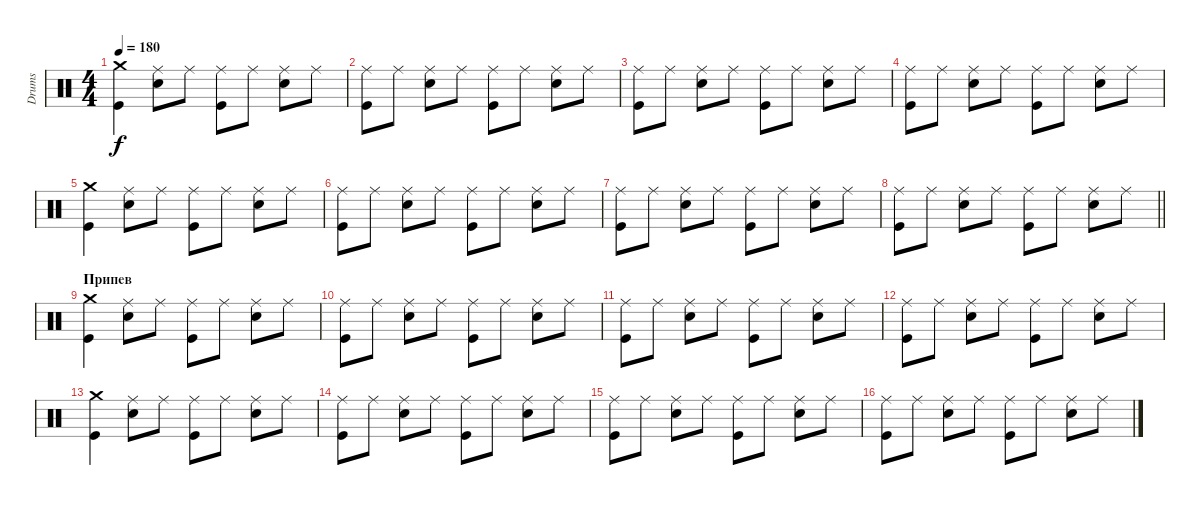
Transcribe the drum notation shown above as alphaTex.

\track ("Drums" "Drums") {instrument percussion}
\staff {score}
\articulation defaults
\ts (4 4)
\tempo 180
\clef neutral
\ks c
("Kick (hit)" "Crash medium (hit)").4{dy f} ("Snare (hit) 2" "Ride (middle)").8 "Ride (middle)".8 ("Kick (hit)" "Ride (middle)").8 "Ride (middle)".8 ("Snare (hit) 2" "Ride (middle)").8 "Ride (middle)".8 |
("Kick (hit)" "Ride (middle)").8 "Ride (middle)".8 ("Snare (hit) 2" "Ride (middle)").8 "Ride (middle)".8 ("Kick (hit)" "Ride (middle)").8 "Ride (middle)".8 ("Snare (hit) 2" "Ride (middle)").8 "Ride (middle)".8 |
("Kick (hit)" "Ride (middle)").8 "Ride (middle)".8 ("Snare (hit) 2" "Ride (middle)").8 "Ride (middle)".8 ("Kick (hit)" "Ride (middle)").8 "Ride (middle)".8 ("Snare (hit) 2" "Ride (middle)").8 "Ride (middle)".8 |
("Kick (hit)" "Ride (middle)").8 "Ride (middle)".8 ("Snare (hit) 2" "Ride (middle)").8 "Ride (middle)".8 ("Kick (hit)" "Ride (middle)").8 "Ride (middle)".8 ("Snare (hit) 2" "Ride (middle)").8 "Ride (middle)".8 |
("Kick (hit)" "Crash medium (hit)").4 ("Snare (hit) 2" "Ride (middle)").8 "Ride (middle)".8 ("Kick (hit)" "Ride (middle)").8 "Ride (middle)".8 ("Snare (hit) 2" "Ride (middle)").8 "Ride (middle)".8 |
("Kick (hit)" "Ride (middle)").8 "Ride (middle)".8 ("Snare (hit) 2" "Ride (middle)").8 "Ride (middle)".8 ("Kick (hit)" "Ride (middle)").8 "Ride (middle)".8 ("Snare (hit) 2" "Ride (middle)").8 "Ride (middle)".8 |
("Kick (hit)" "Ride (middle)").8 "Ride (middle)".8 ("Snare (hit) 2" "Ride (middle)").8 "Ride (middle)".8 ("Kick (hit)" "Ride (middle)").8 "Ride (middle)".8 ("Snare (hit) 2" "Ride (middle)").8 "Ride (middle)".8 |
\barLineRight lightlight
("Kick (hit)" "Ride (middle)").8 "Ride (middle)".8 ("Snare (hit) 2" "Ride (middle)").8 "Ride (middle)".8 ("Kick (hit)" "Ride (middle)").8 "Ride (middle)".8 ("Snare (hit) 2" "Ride (middle)").8 "Ride (middle)".8 |
\section ("" "Припев")
("Kick (hit)" "Crash medium (hit)").4 ("Snare (hit) 2" "Ride (middle)").8 "Ride (middle)".8 ("Kick (hit)" "Ride (middle)").8 "Ride (middle)".8 ("Snare (hit) 2" "Ride (middle)").8 "Ride (middle)".8 |
("Kick (hit)" "Ride (middle)").8 "Ride (middle)".8 ("Snare (hit) 2" "Ride (middle)").8 "Ride (middle)".8 ("Kick (hit)" "Ride (middle)").8 "Ride (middle)".8 ("Snare (hit) 2" "Ride (middle)").8 "Ride (middle)".8 |
("Kick (hit)" "Ride (middle)").8 "Ride (middle)".8 ("Snare (hit) 2" "Ride (middle)").8 "Ride (middle)".8 ("Kick (hit)" "Ride (middle)").8 "Ride (middle)".8 ("Snare (hit) 2" "Ride (middle)").8 "Ride (middle)".8 |
("Kick (hit)" "Ride (middle)").8 "Ride (middle)".8 ("Snare (hit) 2" "Ride (middle)").8 "Ride (middle)".8 ("Kick (hit)" "Ride (middle)").8 "Ride (middle)".8 ("Snare (hit) 2" "Ride (middle)").8 "Ride (middle)".8 |
("Kick (hit)" "Crash medium (hit)").4 ("Snare (hit) 2" "Ride (middle)").8 "Ride (middle)".8 ("Kick (hit)" "Ride (middle)").8 "Ride (middle)".8 ("Snare (hit) 2" "Ride (middle)").8 "Ride (middle)".8 |
("Kick (hit)" "Ride (middle)").8 "Ride (middle)".8 ("Snare (hit) 2" "Ride (middle)").8 "Ride (middle)".8 ("Kick (hit)" "Ride (middle)").8 "Ride (middle)".8 ("Snare (hit) 2" "Ride (middle)").8 "Ride (middle)".8 |
("Kick (hit)" "Ride (middle)").8 "Ride (middle)".8 ("Snare (hit) 2" "Ride (middle)").8 "Ride (middle)".8 ("Kick (hit)" "Ride (middle)").8 "Ride (middle)".8 ("Snare (hit) 2" "Ride (middle)").8 "Ride (middle)".8 |
("Kick (hit)" "Ride (middle)").8 "Ride (middle)".8 ("Snare (hit) 2" "Ride (middle)").8 "Ride (middle)".8 ("Kick (hit)" "Ride (middle)").8 "Ride (middle)".8 ("Snare (hit) 2" "Ride (middle)").8 "Ride (middle)".8
